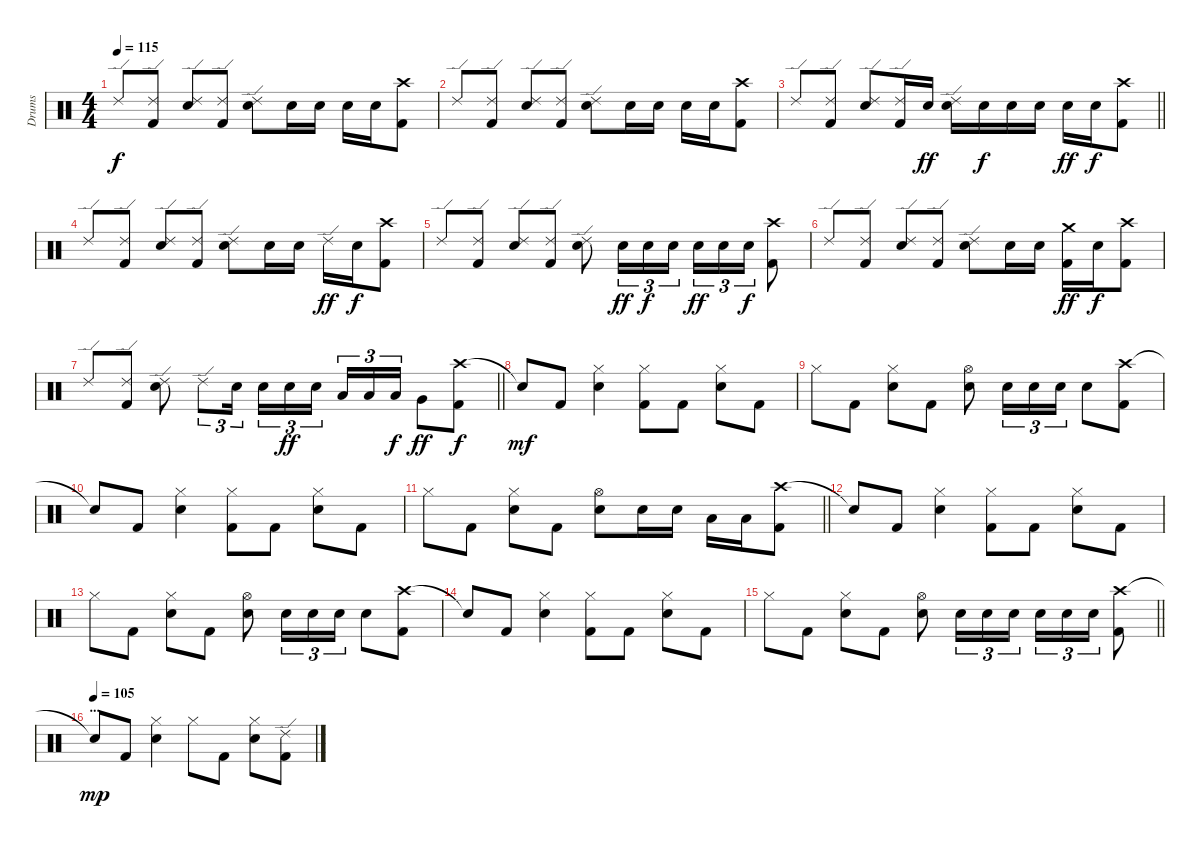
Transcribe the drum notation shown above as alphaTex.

\track ("Drums" "Drums") {instrument percussion}
\staff {score}
\articulation defaults
\ts (4 4)
\tempo 115
\clef neutral
\ks c "Ride (edge) 2".8{dy f}
("Ride (edge) 2" "Kick (hit) 2").8 ("Ride (edge) 2" "Electric Snare (hit)").8 ("Ride (edge) 2" "Kick (hit) 2").8 ("Ride (edge) 2" "Electric Snare (hit)").8 "Electric Snare (hit)".16 "Electric Snare (hit)".16 "Electric Snare (hit)".16 "Electric Snare (hit)".16 ("Crash high (hit)" "Kick (hit) 2").8 |
"Ride (edge) 2".8 ("Ride (edge) 2" "Kick (hit) 2").8 ("Ride (edge) 2" "Electric Snare (hit)").8 ("Ride (edge) 2" "Kick (hit) 2").8 ("Ride (edge) 2" "Electric Snare (hit)").8 "Electric Snare (hit)".16 "Electric Snare (hit)".16 "Electric Snare (hit)".16 "Electric Snare (hit)".16 ("Crash high (hit)" "Kick (hit) 2").8 |
\barLineRight lightlight "Ride (edge) 2".8
("Ride (edge) 2" "Kick (hit) 2").8 ("Ride (edge) 2" "Electric Snare (hit)").8 ("Ride (edge) 2" "Kick (hit) 2").16 "Electric Snare (hit)".16{dy ff} ("Ride (edge) 2" "Electric Snare (hit)").16 "Electric Snare (hit)".16{dy f} "Electric Snare (hit)".16 "Electric Snare (hit)".16 "Electric Snare (hit)".16{dy ff} "Electric Snare (hit)".16{dy f} ("Crash high (hit)" "Kick (hit) 2").8 |
\section ("" "")
"Ride (edge) 2".8 ("Ride (edge) 2" "Kick (hit) 2").8 ("Ride (edge) 2" "Electric Snare (hit)").8 ("Ride (edge) 2" "Kick (hit) 2").8 ("Ride (edge) 2" "Electric Snare (hit)").8 "Electric Snare (hit)".16 "Electric Snare (hit)".16 "Ride (edge) 2".16{dy ff} "Electric Snare (hit)".16{dy f} ("Crash high (hit)" "Kick (hit) 2").8 |
"Ride (edge) 2".8 ("Ride (edge) 2" "Kick (hit) 2").8 ("Ride (edge) 2" "Electric Snare (hit)").8 ("Ride (edge) 2" "Kick (hit) 2").8 ("Ride (edge) 2" "Electric Snare (hit)").8 "Electric Snare (hit)".16{tu (3 2) dy ff} "Electric Snare (hit)".16{tu (3 2) dy f} "Electric Snare (hit)".16{tu (3 2)} "Electric Snare (hit)".16{tu (3 2) dy ff} "Electric Snare (hit)".16{tu (3 2)} "Electric Snare (hit)".16{tu (3 2) dy f} ("Crash high (hit)" "Kick (hit) 2").8 |
"Ride (edge) 2".8 ("Ride (edge) 2" "Kick (hit) 2").8 ("Ride (edge) 2" "Electric Snare (hit)").8 ("Ride (edge) 2" "Kick (hit) 2").8 ("Ride (edge) 2" "Electric Snare (hit)").8 "Electric Snare (hit)".16 "Electric Snare (hit)".16 ("Crash medium (hit)" "Kick (hit) 2").16{dy ff} "Electric Snare (hit)".16{dy f} ("Crash high (hit)" "Kick (hit) 2").8 |
\barLineRight lightlight "Ride (edge) 2".8
("Ride (edge) 2" "Kick (hit) 2").8 ("Ride (edge) 2" "Electric Snare (hit)").8 "Ride (edge) 2".8{tu (3 2)} "Electric Snare (hit)".16{tu (3 2)} "Electric Snare (hit)".16{tu (3 2)} "Electric Snare (hit)".16{tu (3 2) dy ff} "Electric Snare (hit)".16{tu (3 2) beam splitsecondary} "Low Tom (hit)".16{tu (3 2)} "Low Tom (hit)".16{tu (3 2)} "Low Tom (hit)".16{tu (3 2) dy f} "Very Low Tom (hit)".8{dy ff} ("Crash high (hit)" "Kick (hit) 2").8{dy f} |
\section ("" "")
"Snare (hit)"{t}.8{dy mf} "Kick (hit) 2".8 ("Hi-Hat (closed)" "Electric Snare (hit)").4 ("Hi-Hat (closed)" "Kick (hit) 2").8 "Kick (hit) 2".8 ("Hi-Hat (closed)" "Electric Snare (hit)").8 "Kick (hit) 2".8 |
"Hi-Hat (closed)".8 "Kick (hit) 2".8 ("Hi-Hat (closed)" "Electric Snare (hit)").8 "Kick (hit) 2".8 ("Hi-Hat (open)" "Electric Snare (hit)").8 "Electric Snare (hit)".16{tu (3 2)} "Electric Snare (hit)".16{tu (3 2)} "Electric Snare (hit)".16{tu (3 2)} "Electric Snare (hit)".8 ("Crash high (hit)" "Kick (hit) 2").8 |
"Snare (hit)"{t}.8 "Kick (hit) 2".8 ("Hi-Hat (closed)" "Electric Snare (hit)").4 ("Hi-Hat (closed)" "Kick (hit) 2").8 "Kick (hit) 2".8 ("Hi-Hat (closed)" "Electric Snare (hit)").8 "Kick (hit) 2".8 |
\barLineRight lightlight "Hi-Hat (closed)".8 "Kick (hit) 2".8
("Hi-Hat (closed)" "Electric Snare (hit)").8 "Kick (hit) 2".8 ("Hi-Hat (open)" "Electric Snare (hit)").8 "Electric Snare (hit)".16 "Electric Snare (hit)".16 "Low Tom (hit)".16 "Low Tom (hit)".16 ("Crash high (hit)" "Kick (hit) 2").8 |
\section ("" "")
"Snare (hit)"{t}.8 "Kick (hit) 2".8 ("Hi-Hat (closed)" "Electric Snare (hit)").4 ("Hi-Hat (closed)" "Kick (hit) 2").8 "Kick (hit) 2".8 ("Hi-Hat (closed)" "Electric Snare (hit)").8 "Kick (hit) 2".8 |
"Hi-Hat (closed)".8 "Kick (hit) 2".8 ("Hi-Hat (closed)" "Electric Snare (hit)").8 "Kick (hit) 2".8 ("Hi-Hat (open)" "Electric Snare (hit)").8 "Electric Snare (hit)".16{tu (3 2)} "Electric Snare (hit)".16{tu (3 2)} "Electric Snare (hit)".16{tu (3 2)} "Electric Snare (hit)".8 ("Crash high (hit)" "Kick (hit) 2").8 |
"Snare (hit)"{t}.8 "Kick (hit) 2".8 ("Hi-Hat (closed)" "Electric Snare (hit)").4 ("Hi-Hat (closed)" "Kick (hit) 2").8 "Kick (hit) 2".8 ("Hi-Hat (closed)" "Electric Snare (hit)").8 "Kick (hit) 2".8 |
\barLineRight lightlight "Hi-Hat (closed)".8 "Kick (hit) 2".8
("Hi-Hat (closed)" "Electric Snare (hit)").8 "Kick (hit) 2".8 ("Hi-Hat (open)" "Electric Snare (hit)").8 "Electric Snare (hit)".16{tu (3 2)} "Electric Snare (hit)".16{tu (3 2)} "Electric Snare (hit)".16{tu (3 2)} "Electric Snare (hit)".16{tu (3 2)} "Electric Snare (hit)".16{tu (3 2)} "Electric Snare (hit)".16{tu (3 2)} ("Crash high (hit)" "Kick (hit) 2").8 |
\section ("" "...")
\tempo (105)
"Snare (hit)"{t}.8{dy mp} "Kick (hit) 2".8 ("Hi-Hat (closed)" "Electric Snare (hit)").4 "Hi-Hat (closed)".8 "Kick (hit) 2".8 ("Hi-Hat (closed)" "Electric Snare (hit)").8 ("Ride (edge) 2" "Kick (hit) 2").8
